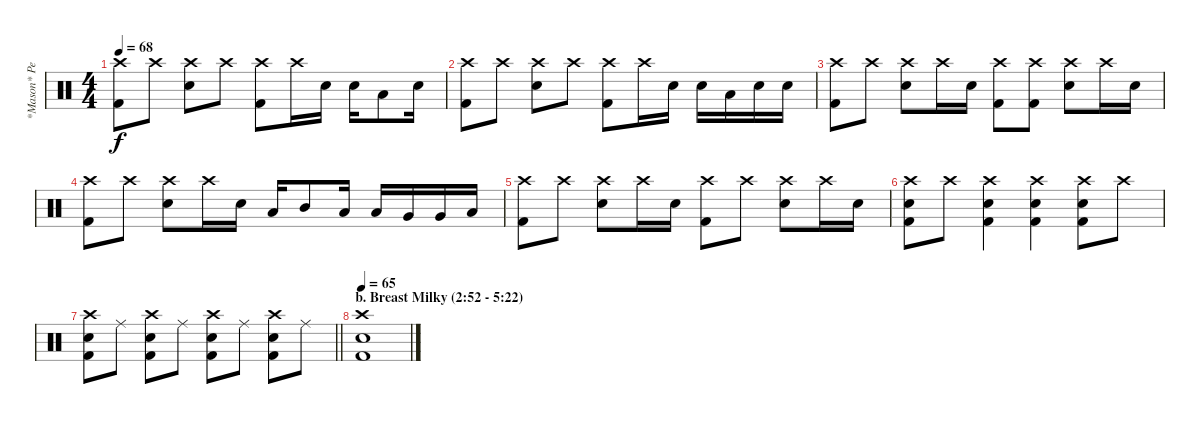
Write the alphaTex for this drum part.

\track ("*Mason* Percussion" "*Mason* Pe") {instrument percussion}
\staff {score}
\articulation defaults
\ts (4 4)
\tempo 68
\clef neutral
\ks c
("Crash high (hit)" "Kick (hit) 2").8{dy f} "Crash high (hit)".8 ("Crash high (hit)" "Snare (hit) 2").8 "Crash high (hit)".8 ("Crash high (hit)" "Kick (hit) 2").8 "Crash high (hit)".16 "Snare (hit) 2".16 "Snare (hit) 2".16 "Low Floor Tom (hit)".8 "Snare (hit) 2".16 |
("Crash high (hit)" "Kick (hit) 2").8 "Crash high (hit)".8 ("Crash high (hit)" "Snare (hit) 2").8 "Crash high (hit)".8 ("Crash high (hit)" "Kick (hit) 2").8 "Crash high (hit)".16 "Snare (hit) 2".16 "Snare (hit) 2".16 "Low Tom (hit)".16 "Snare (hit) 2".16 "Snare (hit) 2".16 |
("Crash high (hit)" "Kick (hit) 2").8 "Crash high (hit)".8 ("Crash high (hit)" "Snare (hit) 2").8 "Crash high (hit)".16 "Snare (hit) 2".16 ("Crash high (hit)" "Kick (hit) 2").8 ("Crash high (hit)" "Kick (hit) 2").8 ("Crash high (hit)" "Snare (hit) 2").8 "Crash high (hit)".16 "Snare (hit) 2".16 |
("Crash high (hit)" "Kick (hit) 2").8 "Crash high (hit)".8 ("Crash high (hit)" "Snare (hit) 2").8 "Crash high (hit)".16 "Snare (hit) 2".16 "Low Tom (hit)".16 "Mid Tom (hit)".8 "Low Tom (hit)".16 "Low Tom (hit)".16 "Very Low Tom (hit)".16 "Very Low Tom (hit)".16 "Low Floor Tom (hit)".16 |
("Crash high (hit)" "Kick (hit) 2").8 "Crash high (hit)".8 ("Crash high (hit)" "Snare (hit) 2").8 "Crash high (hit)".16 "Snare (hit) 2".16 ("Crash high (hit)" "Kick (hit) 2").8 "Crash high (hit)".8 ("Crash high (hit)" "Snare (hit) 2").8 "Crash high (hit)".16 "Snare (hit) 2".16 |
("Crash high (hit)" "Snare (hit) 2" "Kick (hit) 2").8 "Crash high (hit)".8 ("Crash high (hit)" "Snare (hit) 2" "Kick (hit) 2").4 ("Crash high (hit)" "Snare (hit) 2" "Kick (hit) 2").4 ("Crash high (hit)" "Snare (hit) 2" "Kick (hit) 2").8 "Crash high (hit)".8 |
\barLineRight lightlight
("Crash high (hit)" "Snare (hit) 2" "Kick (hit) 2").8 "Ride (middle)".8 ("Crash high (hit)" "Snare (hit) 2" "Kick (hit) 2").8 "Ride (middle)".8 ("Crash high (hit)" "Snare (hit) 2" "Kick (hit) 2").8 "Ride (middle)".8 ("Crash high (hit)" "Snare (hit) 2" "Kick (hit) 2").8 "Ride (middle)".8 |
\section ("" "b. Breast Milky (2:52 - 5:22)")
\tempo 65
("Crash high (hit)" "Snare (hit) 2" "Kick (hit) 2").1
